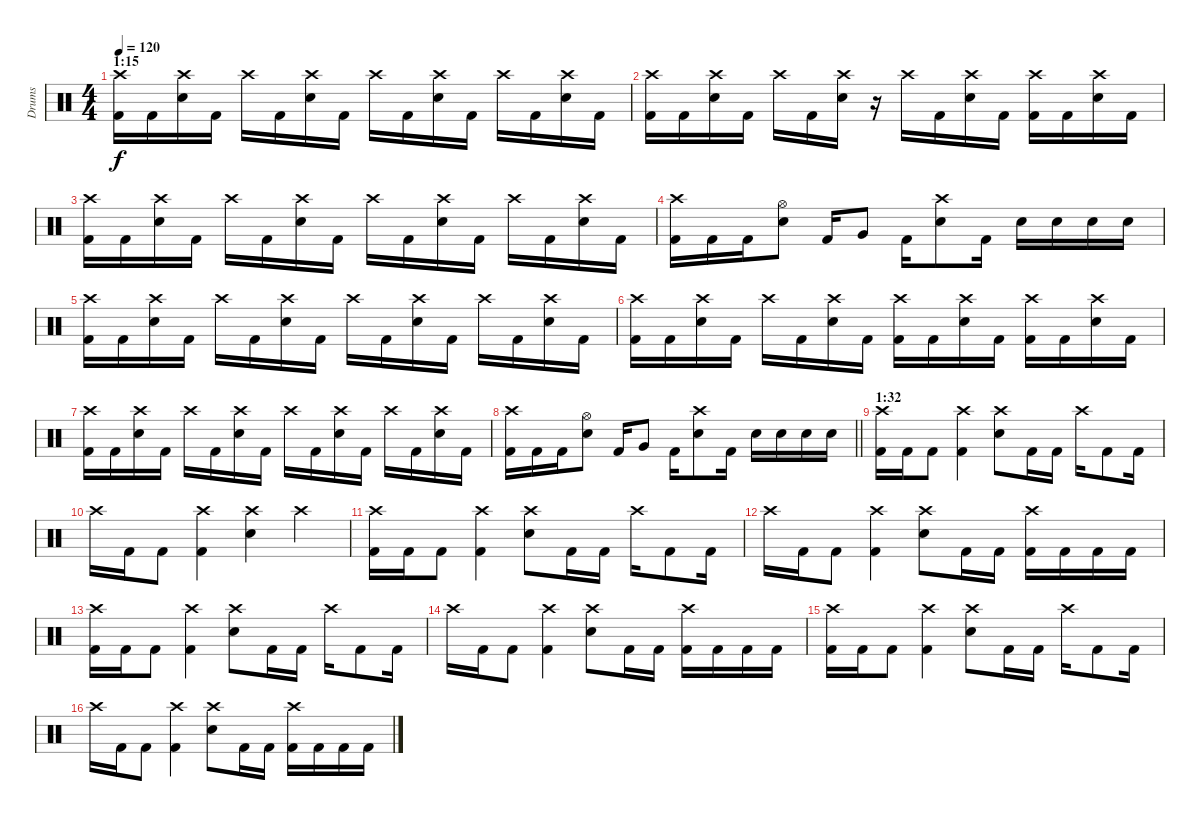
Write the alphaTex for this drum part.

\track ("Drums" "Drums") {instrument percussion}
\staff {score}
\articulation defaults
\ts (4 4)
\section ("" "1:15")
\tempo 120
\clef neutral
\ks c
("Crash high (hit)" "Kick (hit) 2").16{dy f} "Kick (hit) 2".16 ("Crash high (hit)" "Electric Snare (hit)").16 "Kick (hit) 2".16 "Crash high (hit)".16 "Kick (hit) 2".16 ("Crash high (hit)" "Electric Snare (hit)").16 "Kick (hit) 2".16 "Crash high (hit)".16 "Kick (hit) 2".16 ("Crash high (hit)" "Electric Snare (hit)").16 "Kick (hit) 2".16 "Crash high (hit)".16 "Kick (hit) 2".16 ("Crash high (hit)" "Electric Snare (hit)").16 "Kick (hit) 2".16 |
("Crash high (hit)" "Kick (hit) 2").16 "Kick (hit) 2".16 ("Crash high (hit)" "Electric Snare (hit)").16 "Kick (hit) 2".16 "Crash high (hit)".16 "Kick (hit) 2".16 ("Crash high (hit)" "Electric Snare (hit)").16 r.16 "Crash high (hit)".16 "Kick (hit) 2".16 ("Crash high (hit)" "Electric Snare (hit)").16 "Kick (hit) 2".16 ("Crash high (hit)" "Kick (hit) 2").16 "Kick (hit) 2".16 ("Crash high (hit)" "Electric Snare (hit)").16 "Kick (hit) 2".16 |
("Crash high (hit)" "Kick (hit) 2").16 "Kick (hit) 2".16 ("Crash high (hit)" "Electric Snare (hit)").16 "Kick (hit) 2".16 "Crash high (hit)".16 "Kick (hit) 2".16 ("Crash high (hit)" "Electric Snare (hit)").16 "Kick (hit) 2".16 "Crash high (hit)".16 "Kick (hit) 2".16 ("Crash high (hit)" "Electric Snare (hit)").16 "Kick (hit) 2".16 "Crash high (hit)".16 "Kick (hit) 2".16 ("Crash high (hit)" "Electric Snare (hit)").16 "Kick (hit) 2".16 |
("Crash high (hit)" "Kick (hit) 2").16 "Kick (hit) 2".16 "Kick (hit) 2".16 ("Hi-Hat (open)" "Electric Snare (hit)").8 "Kick (hit) 2".16 "Very Low Tom (hit)".8 "Kick (hit) 2".16 ("Crash high (hit)" "Electric Snare (hit)").8 "Kick (hit) 2".16 "Electric Snare (hit)".16 "Electric Snare (hit)".16 "Electric Snare (hit)".16 "Electric Snare (hit)".16 |
("Crash high (hit)" "Kick (hit) 2").16 "Kick (hit) 2".16 ("Crash high (hit)" "Electric Snare (hit)").16 "Kick (hit) 2".16 "Crash high (hit)".16 "Kick (hit) 2".16 ("Crash high (hit)" "Electric Snare (hit)").16 "Kick (hit) 2".16 "Crash high (hit)".16 "Kick (hit) 2".16 ("Crash high (hit)" "Electric Snare (hit)").16 "Kick (hit) 2".16 "Crash high (hit)".16 "Kick (hit) 2".16 ("Crash high (hit)" "Electric Snare (hit)").16 "Kick (hit) 2".16 |
("Crash high (hit)" "Kick (hit) 2").16 "Kick (hit) 2".16 ("Crash high (hit)" "Electric Snare (hit)").16 "Kick (hit) 2".16 "Crash high (hit)".16 "Kick (hit) 2".16 ("Crash high (hit)" "Electric Snare (hit)").16 "Kick (hit) 2".16 ("Crash high (hit)" "Kick (hit) 2").16 "Kick (hit) 2".16 ("Crash high (hit)" "Electric Snare (hit)").16 "Kick (hit) 2".16 ("Crash high (hit)" "Kick (hit) 2").16 "Kick (hit) 2".16 ("Crash high (hit)" "Electric Snare (hit)").16 "Kick (hit) 2".16 |
("Crash high (hit)" "Kick (hit) 2").16 "Kick (hit) 2".16 ("Crash high (hit)" "Electric Snare (hit)").16 "Kick (hit) 2".16 "Crash high (hit)".16 "Kick (hit) 2".16 ("Crash high (hit)" "Electric Snare (hit)").16 "Kick (hit) 2".16 "Crash high (hit)".16 "Kick (hit) 2".16 ("Crash high (hit)" "Electric Snare (hit)").16 "Kick (hit) 2".16 "Crash high (hit)".16 "Kick (hit) 2".16 ("Crash high (hit)" "Electric Snare (hit)").16 "Kick (hit) 2".16 |
\barLineRight lightlight
("Crash high (hit)" "Kick (hit) 2").16 "Kick (hit) 2".16 "Kick (hit) 2".16 ("Hi-Hat (open)" "Electric Snare (hit)").8 "Kick (hit) 2".16 "Very Low Tom (hit)".8 "Kick (hit) 2".16 ("Crash high (hit)" "Electric Snare (hit)").8 "Kick (hit) 2".16 "Electric Snare (hit)".16 "Electric Snare (hit)".16 "Electric Snare (hit)".16 "Electric Snare (hit)".16 |
\section ("" "1:32")
("Crash high (hit)" "Kick (hit) 2").16 "Kick (hit) 2".16 "Kick (hit) 2".8 ("Crash high (hit)" "Kick (hit) 2").4 ("Crash high (hit)" "Electric Snare (hit)").8 "Kick (hit) 2".16 "Kick (hit) 2".16 "Crash high (hit)".16 "Kick (hit) 2".8 "Kick (hit) 2".16 |
"Crash high (hit)".16 "Kick (hit) 2".16 "Kick (hit) 2".8 ("Crash high (hit)" "Kick (hit) 2").4 ("Crash high (hit)" "Electric Snare (hit)").4 "Crash high (hit)".4 |
("Crash high (hit)" "Kick (hit) 2").16 "Kick (hit) 2".16 "Kick (hit) 2".8 ("Crash high (hit)" "Kick (hit) 2").4 ("Crash high (hit)" "Electric Snare (hit)").8 "Kick (hit) 2".16 "Kick (hit) 2".16 "Crash high (hit)".16 "Kick (hit) 2".8 "Kick (hit) 2".16 |
"Crash high (hit)".16 "Kick (hit) 2".16 "Kick (hit) 2".8 ("Crash high (hit)" "Kick (hit) 2").4 ("Crash high (hit)" "Electric Snare (hit)").8 "Kick (hit) 2".16 "Kick (hit) 2".16 ("Crash high (hit)" "Kick (hit) 2").16 "Kick (hit) 2".16 "Kick (hit) 2".16 "Kick (hit) 2".16 |
("Crash high (hit)" "Kick (hit) 2").16 "Kick (hit) 2".16 "Kick (hit) 2".8 ("Crash high (hit)" "Kick (hit) 2").4 ("Crash high (hit)" "Electric Snare (hit)").8 "Kick (hit) 2".16 "Kick (hit) 2".16 "Crash high (hit)".16 "Kick (hit) 2".8 "Kick (hit) 2".16 |
"Crash high (hit)".16 "Kick (hit) 2".16 "Kick (hit) 2".8 ("Crash high (hit)" "Kick (hit) 2").4 ("Crash high (hit)" "Electric Snare (hit)").8 "Kick (hit) 2".16 "Kick (hit) 2".16 ("Crash high (hit)" "Kick (hit) 2").16 "Kick (hit) 2".16 "Kick (hit) 2".16 "Kick (hit) 2".16 |
("Crash high (hit)" "Kick (hit) 2").16 "Kick (hit) 2".16 "Kick (hit) 2".8 ("Crash high (hit)" "Kick (hit) 2").4 ("Crash high (hit)" "Electric Snare (hit)").8 "Kick (hit) 2".16 "Kick (hit) 2".16 "Crash high (hit)".16 "Kick (hit) 2".8 "Kick (hit) 2".16 |
"Crash high (hit)".16 "Kick (hit) 2".16 "Kick (hit) 2".8 ("Crash high (hit)" "Kick (hit) 2").4 ("Crash high (hit)" "Electric Snare (hit)").8 "Kick (hit) 2".16 "Kick (hit) 2".16 ("Crash high (hit)" "Kick (hit) 2").16 "Kick (hit) 2".16 "Kick (hit) 2".16 "Kick (hit) 2".16
